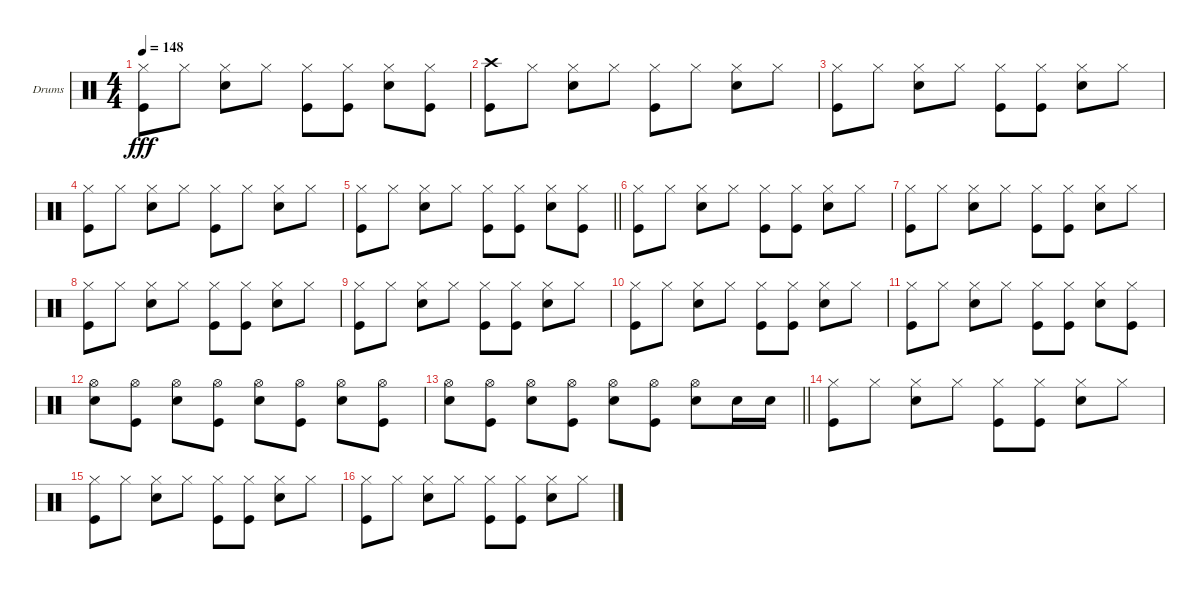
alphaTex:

\bracketExtendMode groupsimilarinstruments
\firstSystemTrackNameOrientation horizontal
\otherSystemsTrackNameOrientation horizontal
\track ("James Kottak" "Drums") {instrument percussion}
\staff {score}
\articulation defaults
\ts (4 4)
\tempo 148
\clef neutral
\ks c
("Hi-Hat (closed)" "Kick (hit)").8{dy fff} "Hi-Hat (closed)".8 ("Hi-Hat (closed)" "Snare (hit) 2").8 "Hi-Hat (closed)".8 ("Hi-Hat (closed)" "Kick (hit)").8 ("Hi-Hat (closed)" "Kick (hit)").8 ("Hi-Hat (closed)" "Snare (hit) 2").8 ("Hi-Hat (closed)" "Kick (hit)").8 |
("Kick (hit)" "Crash high (hit)").8 "Hi-Hat (closed)".8 ("Hi-Hat (closed)" "Snare (hit) 2").8 "Hi-Hat (closed)".8 ("Hi-Hat (closed)" "Kick (hit)").8 "Hi-Hat (closed)".8 ("Hi-Hat (closed)" "Snare (hit) 2").8 "Hi-Hat (closed)".8 |
("Hi-Hat (closed)" "Kick (hit)").8 "Hi-Hat (closed)".8 ("Hi-Hat (closed)" "Snare (hit) 2").8 "Hi-Hat (closed)".8 ("Hi-Hat (closed)" "Kick (hit)").8 ("Hi-Hat (closed)" "Kick (hit)").8 ("Hi-Hat (closed)" "Snare (hit) 2").8 "Hi-Hat (closed)".8 |
("Kick (hit)" "Hi-Hat (closed)").8 "Hi-Hat (closed)".8 ("Hi-Hat (closed)" "Snare (hit) 2").8 "Hi-Hat (closed)".8 ("Hi-Hat (closed)" "Kick (hit)").8 "Hi-Hat (closed)".8 ("Hi-Hat (closed)" "Snare (hit) 2").8 "Hi-Hat (closed)".8 |
\barLineRight lightlight
("Hi-Hat (closed)" "Kick (hit)").8 "Hi-Hat (closed)".8 ("Hi-Hat (closed)" "Snare (hit) 2").8 "Hi-Hat (closed)".8 ("Hi-Hat (closed)" "Kick (hit)").8 ("Hi-Hat (closed)" "Kick (hit)").8 ("Hi-Hat (closed)" "Snare (hit) 2").8 ("Hi-Hat (closed)" "Kick (hit)").8 |
("Hi-Hat (closed)" "Kick (hit)").8 "Hi-Hat (closed)".8 ("Hi-Hat (closed)" "Snare (hit) 2").8 "Hi-Hat (closed)".8 ("Hi-Hat (closed)" "Kick (hit)").8 ("Hi-Hat (closed)" "Kick (hit)").8 ("Hi-Hat (closed)" "Snare (hit) 2").8 "Hi-Hat (closed)".8 |
("Hi-Hat (closed)" "Kick (hit)").8 "Hi-Hat (closed)".8 ("Hi-Hat (closed)" "Snare (hit) 2").8 "Hi-Hat (closed)".8 ("Hi-Hat (closed)" "Kick (hit)").8 ("Hi-Hat (closed)" "Kick (hit)").8 ("Hi-Hat (closed)" "Snare (hit) 2").8 "Hi-Hat (closed)".8 |
("Hi-Hat (closed)" "Kick (hit)").8 "Hi-Hat (closed)".8 ("Hi-Hat (closed)" "Snare (hit) 2").8 "Hi-Hat (closed)".8 ("Hi-Hat (closed)" "Kick (hit)").8 ("Hi-Hat (closed)" "Kick (hit)").8 ("Hi-Hat (closed)" "Snare (hit) 2").8 "Hi-Hat (closed)".8 |
("Hi-Hat (closed)" "Kick (hit)").8 "Hi-Hat (closed)".8 ("Hi-Hat (closed)" "Snare (hit) 2").8 "Hi-Hat (closed)".8 ("Hi-Hat (closed)" "Kick (hit)").8 ("Hi-Hat (closed)" "Kick (hit)").8 ("Hi-Hat (closed)" "Snare (hit) 2").8 "Hi-Hat (closed)".8 |
("Hi-Hat (closed)" "Kick (hit)").8 "Hi-Hat (closed)".8 ("Hi-Hat (closed)" "Snare (hit) 2").8 "Hi-Hat (closed)".8 ("Hi-Hat (closed)" "Kick (hit)").8 ("Hi-Hat (closed)" "Kick (hit)").8 ("Hi-Hat (closed)" "Snare (hit) 2").8 "Hi-Hat (closed)".8 |
("Hi-Hat (closed)" "Kick (hit)").8 "Hi-Hat (closed)".8 ("Hi-Hat (closed)" "Snare (hit) 2").8 "Hi-Hat (closed)".8 ("Hi-Hat (closed)" "Kick (hit)").8 ("Hi-Hat (closed)" "Kick (hit)").8 ("Hi-Hat (closed)" "Snare (hit) 2").8 ("Hi-Hat (closed)" "Kick (hit)").8 |
("Snare (hit) 2" "Hi-Hat (open)").8 ("Kick (hit)" "Hi-Hat (open)").8 ("Snare (hit) 2" "Hi-Hat (open)").8 ("Kick (hit)" "Hi-Hat (open)").8 ("Snare (hit) 2" "Hi-Hat (open)").8 ("Kick (hit)" "Hi-Hat (open)").8 ("Snare (hit) 2" "Hi-Hat (open)").8 ("Kick (hit)" "Hi-Hat (open)").8 |
\barLineRight lightlight
("Snare (hit) 2" "Hi-Hat (open)").8 ("Kick (hit)" "Hi-Hat (open)").8 ("Snare (hit) 2" "Hi-Hat (open)").8 ("Kick (hit)" "Hi-Hat (open)").8 ("Snare (hit) 2" "Hi-Hat (open)").8 ("Kick (hit)" "Hi-Hat (open)").8 ("Snare (hit) 2" "Hi-Hat (open)").8 "Snare (hit) 2".16 "Snare (hit) 2".16 |
("Hi-Hat (closed)" "Kick (hit)").8 "Hi-Hat (closed)".8 ("Hi-Hat (closed)" "Snare (hit) 2").8 "Hi-Hat (closed)".8 ("Hi-Hat (closed)" "Kick (hit)").8 ("Hi-Hat (closed)" "Kick (hit)").8 ("Hi-Hat (closed)" "Snare (hit) 2").8 "Hi-Hat (closed)".8 |
("Hi-Hat (closed)" "Kick (hit)").8 "Hi-Hat (closed)".8 ("Hi-Hat (closed)" "Snare (hit) 2").8 "Hi-Hat (closed)".8 ("Hi-Hat (closed)" "Kick (hit)").8 ("Hi-Hat (closed)" "Kick (hit)").8 ("Hi-Hat (closed)" "Snare (hit) 2").8 "Hi-Hat (closed)".8 |
("Hi-Hat (closed)" "Kick (hit)").8 "Hi-Hat (closed)".8 ("Hi-Hat (closed)" "Snare (hit) 2").8 "Hi-Hat (closed)".8 ("Hi-Hat (closed)" "Kick (hit)").8 ("Hi-Hat (closed)" "Kick (hit)").8 ("Hi-Hat (closed)" "Snare (hit) 2").8 "Hi-Hat (closed)".8
